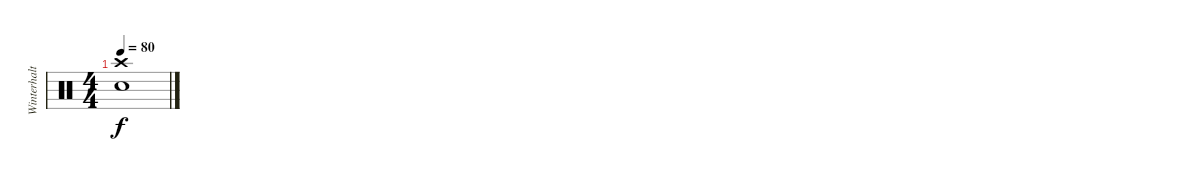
\track ("Winterhalten" "Winterhalt") {instrument percussion}
\staff {score}
\articulation defaults
\ts (4 4)
\tempo 80
\clef neutral
\ks c
("Crash high (hit)" "Snare (hit) 2").1{dy f}
